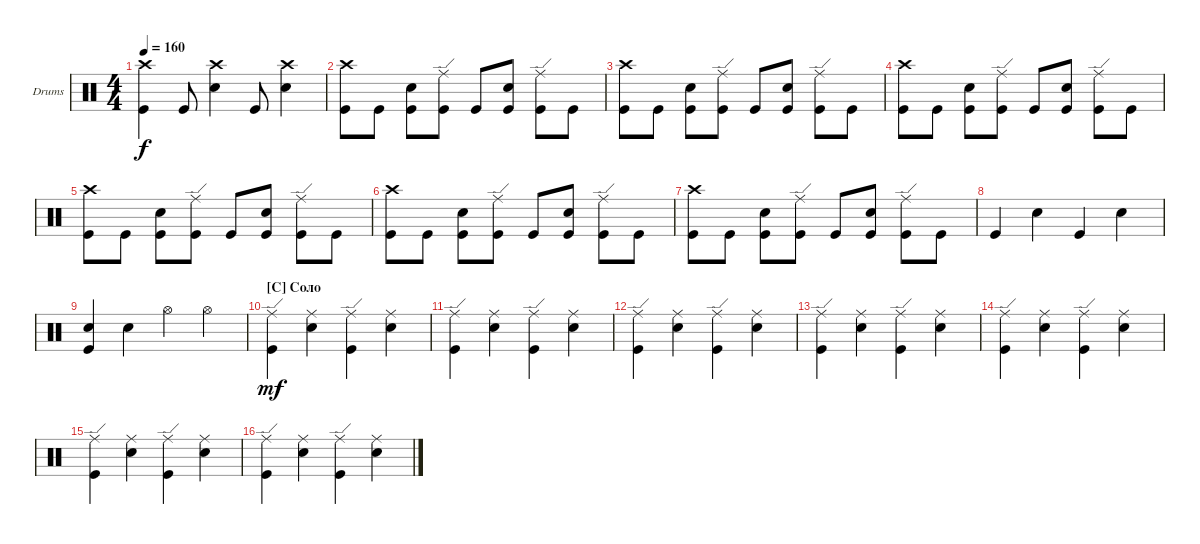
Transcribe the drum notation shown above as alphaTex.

\defaultSystemsLayout 4
\bracketExtendMode groupsimilarinstruments
\firstSystemTrackNameOrientation horizontal
\otherSystemsTrackNameOrientation horizontal
\track ("Drumkit" "Drums") {instrument percussion}
\staff {score}
\articulation defaults
\ts (4 4)
\tempo 160
\clef neutral
\ks c
("Kick (hit)" "Crash high (hit)").4{dy f} "Kick (hit)".8 ("Snare (hit) 2" "Crash high (hit)").4 "Kick (hit)".8 ("Snare (hit) 2" "Crash high (hit)").4 |
("Kick (hit)" "Crash high (hit)").8 "Kick (hit)".8 ("Kick (hit)" "Snare (hit) 2").8 ("Kick (hit)" "Ride (edge)").8 "Kick (hit)".8 ("Kick (hit)" "Snare (hit) 2").8 ("Kick (hit)" "Ride (edge)").8 "Kick (hit)".8 |
("Kick (hit)" "Crash high (hit)").8 "Kick (hit)".8 ("Kick (hit)" "Snare (hit) 2").8 ("Kick (hit)" "Ride (edge)").8 "Kick (hit)".8 ("Kick (hit)" "Snare (hit) 2").8 ("Kick (hit)" "Ride (edge)").8 "Kick (hit)".8 |
("Kick (hit)" "Crash high (hit)").8 "Kick (hit)".8 ("Kick (hit)" "Snare (hit) 2").8 ("Kick (hit)" "Ride (edge)").8 "Kick (hit)".8 ("Kick (hit)" "Snare (hit) 2").8 ("Kick (hit)" "Ride (edge)").8 "Kick (hit)".8 |
("Kick (hit)" "Crash high (hit)").8 "Kick (hit)".8 ("Kick (hit)" "Snare (hit) 2").8 ("Kick (hit)" "Ride (edge)").8 "Kick (hit)".8 ("Kick (hit)" "Snare (hit) 2").8 ("Kick (hit)" "Ride (edge)").8 "Kick (hit)".8 |
("Kick (hit)" "Crash high (hit)").8 "Kick (hit)".8 ("Kick (hit)" "Snare (hit) 2").8 ("Kick (hit)" "Ride (edge)").8 "Kick (hit)".8 ("Kick (hit)" "Snare (hit) 2").8 ("Kick (hit)" "Ride (edge)").8 "Kick (hit)".8 |
("Kick (hit)" "Crash high (hit)").8 "Kick (hit)".8 ("Kick (hit)" "Snare (hit) 2").8 ("Kick (hit)" "Ride (edge)").8 "Kick (hit)".8 ("Kick (hit)" "Snare (hit) 2").8 ("Kick (hit)" "Ride (edge)").8 "Kick (hit)".8 |
"Kick (hit)".4 "Snare (hit) 2".4 "Kick (hit)".4 "Snare (hit) 2".4 |
("Kick (hit)" "Snare (hit) 2").4 "Snare (hit) 2".4 "Hi-Hat (open)".4 "Hi-Hat (open)".4 |
\section ("C" "Соло")
("Kick (hit)" "Ride (edge)").4{dy mf} ("Snare (hit) 2" "Ride (middle)").4 ("Kick (hit)" "Ride (edge)").4 ("Snare (hit) 2" "Ride (middle)").4 |
("Kick (hit)" "Ride (edge)").4 ("Snare (hit) 2" "Ride (middle)").4 ("Kick (hit)" "Ride (edge)").4 ("Snare (hit) 2" "Ride (middle)").4 |
("Kick (hit)" "Ride (edge)").4 ("Snare (hit) 2" "Ride (middle)").4 ("Kick (hit)" "Ride (edge)").4 ("Snare (hit) 2" "Ride (middle)").4 |
("Kick (hit)" "Ride (edge)").4 ("Snare (hit) 2" "Ride (middle)").4 ("Kick (hit)" "Ride (edge)").4 ("Snare (hit) 2" "Ride (middle)").4 |
("Kick (hit)" "Ride (edge)").4 ("Snare (hit) 2" "Ride (middle)").4 ("Kick (hit)" "Ride (edge)").4 ("Snare (hit) 2" "Ride (middle)").4 |
("Kick (hit)" "Ride (edge)").4 ("Snare (hit) 2" "Ride (middle)").4 ("Kick (hit)" "Ride (edge)").4 ("Snare (hit) 2" "Ride (middle)").4 |
("Kick (hit)" "Ride (edge)").4 ("Snare (hit) 2" "Ride (middle)").4 ("Kick (hit)" "Ride (edge)").4 ("Snare (hit) 2" "Ride (middle)").4
